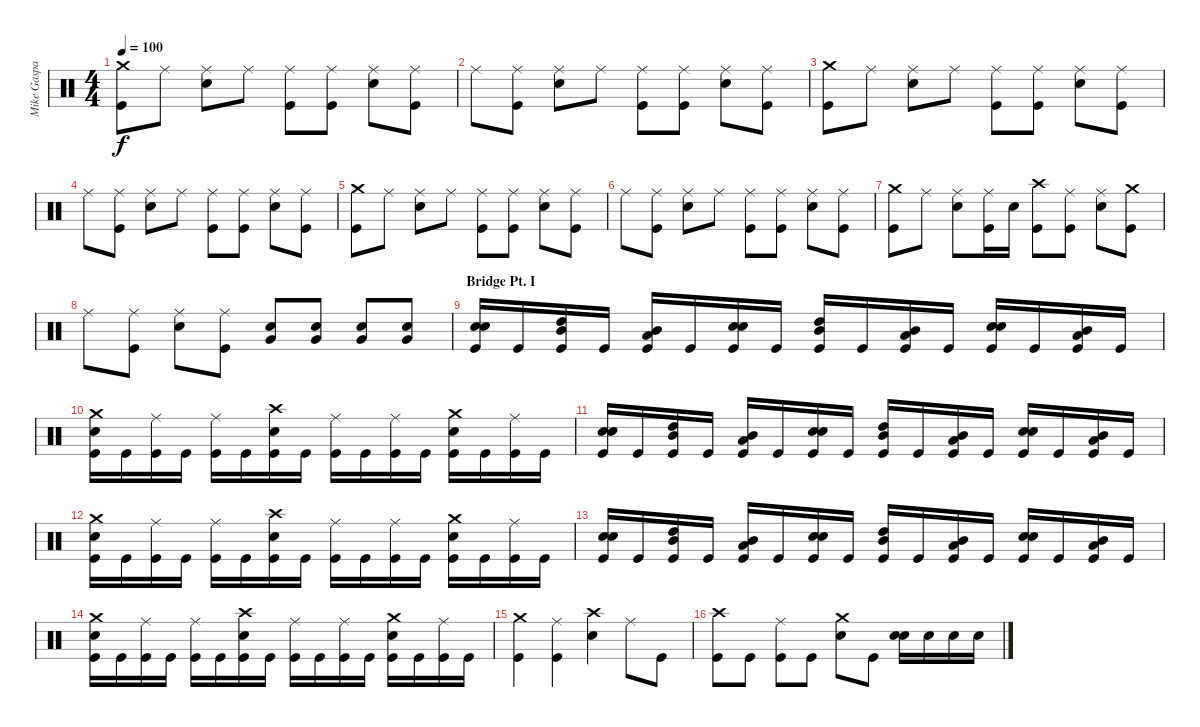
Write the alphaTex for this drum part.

\track ("Mike Gaspar" "Mike Gaspa") {instrument percussion}
\staff {score}
\articulation defaults
\ts (4 4)
\tempo 100
\clef neutral
\ks c
("Crash medium (hit)" "Kick (hit)").8{dy f} "Ride (middle)".8 ("Ride (middle)" "Electric Snare (hit)").8 "Ride (middle)".8 ("Ride (middle)" "Kick (hit)").8 ("Ride (middle)" "Kick (hit)").8 ("Ride (middle)" "Electric Snare (hit)").8 ("Ride (middle)" "Kick (hit)").8 |
"Ride (middle)".8 ("Ride (middle)" "Kick (hit)").8 ("Ride (middle)" "Electric Snare (hit)").8 "Ride (middle)".8 ("Ride (middle)" "Kick (hit)").8 ("Ride (middle)" "Kick (hit)").8 ("Ride (middle)" "Electric Snare (hit)").8 ("Ride (middle)" "Kick (hit)").8 |
("Crash medium (hit)" "Kick (hit)").8 "Ride (middle)".8 ("Ride (middle)" "Electric Snare (hit)").8 "Ride (middle)".8 ("Ride (middle)" "Kick (hit)").8 ("Ride (middle)" "Kick (hit)").8 ("Ride (middle)" "Electric Snare (hit)").8 ("Ride (middle)" "Kick (hit)").8 |
"Ride (middle)".8 ("Ride (middle)" "Kick (hit)").8 ("Ride (middle)" "Electric Snare (hit)").8 "Ride (middle)".8 ("Ride (middle)" "Kick (hit)").8 ("Ride (middle)" "Kick (hit)").8 ("Ride (middle)" "Electric Snare (hit)").8 ("Ride (middle)" "Kick (hit)").8 |
("Crash medium (hit)" "Kick (hit)").8 "Ride (middle)".8 ("Ride (middle)" "Electric Snare (hit)").8 "Ride (middle)".8 ("Ride (middle)" "Kick (hit)").8 ("Ride (middle)" "Kick (hit)").8 ("Ride (middle)" "Electric Snare (hit)").8 ("Ride (middle)" "Kick (hit)").8 |
"Ride (middle)".8 ("Ride (middle)" "Kick (hit)").8 ("Ride (middle)" "Electric Snare (hit)").8 "Ride (middle)".8 ("Ride (middle)" "Kick (hit)").8 ("Ride (middle)" "Kick (hit)").8 ("Ride (middle)" "Electric Snare (hit)").8 ("Ride (middle)" "Kick (hit)").8 |
("Crash medium (hit)" "Kick (hit)").8 "Ride (middle)".8 ("Ride (middle)" "Electric Snare (hit)").8 ("Ride (middle)" "Kick (hit)").16 "Electric Snare (hit)".16 ("Crash high (hit)" "Kick (hit)").8 ("Ride (middle)" "Kick (hit)").8 ("Ride (middle)" "Electric Snare (hit)").8 ("Crash medium (hit)" "Kick (hit)").8 |
"Ride (middle)".8 ("Ride (middle)" "Kick (hit)").8 ("Ride (middle)" "Electric Snare (hit)").8 ("Ride (middle)" "Kick (hit)").8 ("Very Low Tom (hit)" "Electric Snare (hit)").8 ("Very Low Tom (hit)" "Electric Snare (hit)").8 ("Very Low Tom (hit)" "Electric Snare (hit)").8 ("Very Low Tom (hit)" "Electric Snare (hit)").8 |
\section ("" "Bridge Pt. I")
("Electric Snare (hit)" "Electric Snare (hit)" "Kick (hit)").16{bd 480} "Kick (hit)".16 ("High Tom (hit)" "Mid Tom (hit)" "Kick (hit)").16 "Kick (hit)".16 ("Low Tom (hit)" "Mid Tom (hit)" "Kick (hit)").16 "Kick (hit)".16 ("Electric Snare (hit)" "Electric Snare (hit)" "Kick (hit)").16{bd 480} "Kick (hit)".16 ("High Tom (hit)" "Mid Tom (hit)" "Kick (hit)").16 "Kick (hit)".16 ("Low Tom (hit)" "Mid Tom (hit)" "Kick (hit)").16 "Kick (hit)".16 ("Electric Snare (hit)" "Electric Snare (hit)" "Kick (hit)").16{bd 480} "Kick (hit)".16 ("Mid Tom (hit)" "Low Tom (hit)" "Kick (hit)").16 "Kick (hit)".16 |
("Crash medium (hit)" "Electric Snare (hit)" "Kick (hit)").16 "Kick (hit)".16 ("Ride (middle)" "Kick (hit)").16 "Kick (hit)".16 ("Ride (middle)" "Kick (hit)").16 "Kick (hit)".16 ("Crash high (hit)" "Electric Snare (hit)" "Kick (hit)").16 "Kick (hit)".16 ("Ride (middle)" "Kick (hit)").16 "Kick (hit)".16 ("Ride (middle)" "Kick (hit)").16 "Kick (hit)".16 ("Crash medium (hit)" "Electric Snare (hit)" "Kick (hit)").16 "Kick (hit)".16 ("Ride (middle)" "Kick (hit)").16 "Kick (hit)".16 |
("Electric Snare (hit)" "Electric Snare (hit)" "Kick (hit)").16{bd 480} "Kick (hit)".16 ("High Tom (hit)" "Mid Tom (hit)" "Kick (hit)").16 "Kick (hit)".16 ("Low Tom (hit)" "Mid Tom (hit)" "Kick (hit)").16 "Kick (hit)".16 ("Electric Snare (hit)" "Electric Snare (hit)" "Kick (hit)").16{bd 480} "Kick (hit)".16 ("High Tom (hit)" "Mid Tom (hit)" "Kick (hit)").16 "Kick (hit)".16 ("Low Tom (hit)" "Mid Tom (hit)" "Kick (hit)").16 "Kick (hit)".16 ("Electric Snare (hit)" "Electric Snare (hit)" "Kick (hit)").16{bd 480} "Kick (hit)".16 ("Mid Tom (hit)" "Low Tom (hit)" "Kick (hit)").16 "Kick (hit)".16 |
("Crash medium (hit)" "Electric Snare (hit)" "Kick (hit)").16 "Kick (hit)".16 ("Ride (middle)" "Kick (hit)").16 "Kick (hit)".16 ("Ride (middle)" "Kick (hit)").16 "Kick (hit)".16 ("Crash high (hit)" "Electric Snare (hit)" "Kick (hit)").16 "Kick (hit)".16 ("Ride (middle)" "Kick (hit)").16 "Kick (hit)".16 ("Ride (middle)" "Kick (hit)").16 "Kick (hit)".16 ("Crash medium (hit)" "Electric Snare (hit)" "Kick (hit)").16 "Kick (hit)".16 ("Ride (middle)" "Kick (hit)").16 "Kick (hit)".16 |
("Electric Snare (hit)" "Electric Snare (hit)" "Kick (hit)").16{bd 480} "Kick (hit)".16 ("High Tom (hit)" "Mid Tom (hit)" "Kick (hit)").16 "Kick (hit)".16 ("Low Tom (hit)" "Mid Tom (hit)" "Kick (hit)").16 "Kick (hit)".16 ("Electric Snare (hit)" "Electric Snare (hit)" "Kick (hit)").16{bd 480} "Kick (hit)".16 ("High Tom (hit)" "Mid Tom (hit)" "Kick (hit)").16 "Kick (hit)".16 ("Low Tom (hit)" "Mid Tom (hit)" "Kick (hit)").16 "Kick (hit)".16 ("Electric Snare (hit)" "Electric Snare (hit)" "Kick (hit)").16{bd 480} "Kick (hit)".16 ("Mid Tom (hit)" "Low Tom (hit)" "Kick (hit)").16 "Kick (hit)".16 |
("Crash medium (hit)" "Electric Snare (hit)" "Kick (hit)").16 "Kick (hit)".16 ("Ride (middle)" "Kick (hit)").16 "Kick (hit)".16 ("Ride (middle)" "Kick (hit)").16 "Kick (hit)".16 ("Crash high (hit)" "Electric Snare (hit)" "Kick (hit)").16 "Kick (hit)".16 ("Ride (middle)" "Kick (hit)").16 "Kick (hit)".16 ("Ride (middle)" "Kick (hit)").16 "Kick (hit)".16 ("Crash medium (hit)" "Electric Snare (hit)" "Kick (hit)").16 "Kick (hit)".16 ("Ride (middle)" "Kick (hit)").16 "Kick (hit)".16 |
("Crash medium (hit)" "Kick (hit)").4 ("Ride (middle)" "Kick (hit)").4 ("Crash high (hit)" "Electric Snare (hit)").4 "Ride (middle)".8 "Kick (hit)".8 |
("Crash high (hit)" "Kick (hit)").8 "Kick (hit)".8 ("Ride (middle)" "Kick (hit)").8 "Kick (hit)".8 ("Crash medium (hit)" "Electric Snare (hit)").8 "Kick (hit)".8 ("Electric Snare (hit)" "Electric Snare (hit)").16{bd 480} "Electric Snare (hit)".16 "Electric Snare (hit)".16 "Electric Snare (hit)".16
